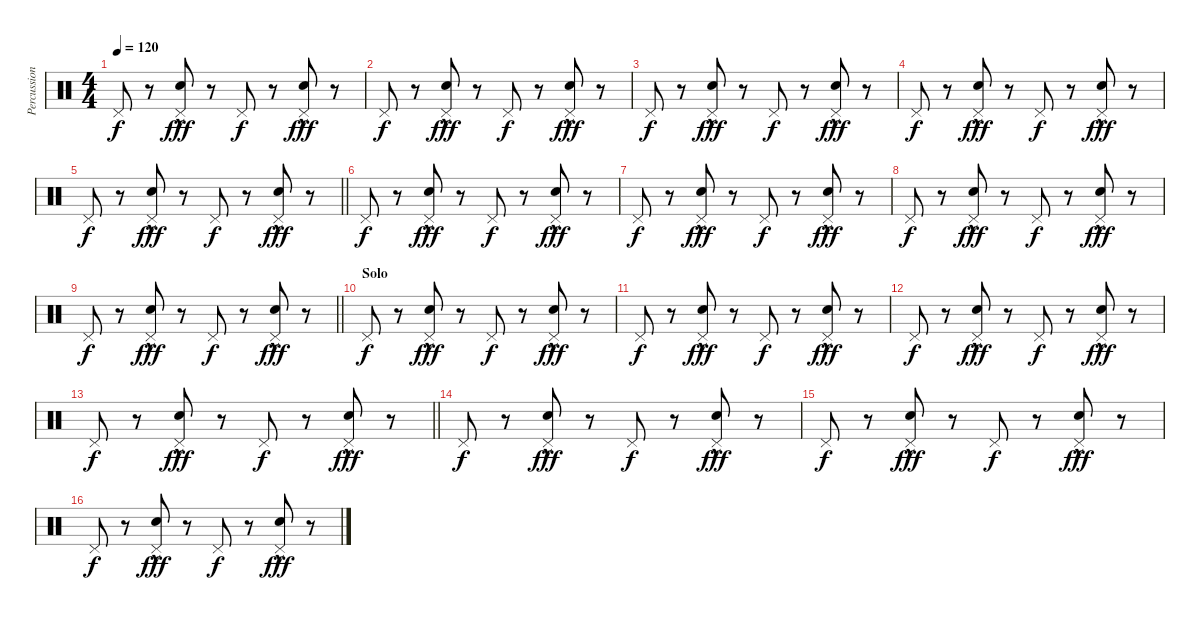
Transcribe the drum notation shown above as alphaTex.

\track ("Percussion" "Percussion") {instrument percussion}
\staff {score}
\articulation defaults
\ts (4 4)
\tempo 120
\clef neutral
\ks c "Pedal Hi-Hat (hit)".8{dy f}
r.8 ("Snare (hit) 2"{hac} "Pedal Hi-Hat (hit)").8{dy fff} r.8 "Pedal Hi-Hat (hit)".8{dy f} r.8 ("Snare (hit) 2"{hac} "Pedal Hi-Hat (hit)").8{dy fff} r.8 |
"Pedal Hi-Hat (hit)".8{dy f} r.8 ("Snare (hit) 2"{hac} "Pedal Hi-Hat (hit)").8{dy fff} r.8 "Pedal Hi-Hat (hit)".8{dy f} r.8 ("Snare (hit) 2"{hac} "Pedal Hi-Hat (hit)").8{dy fff} r.8 |
"Pedal Hi-Hat (hit)".8{dy f} r.8 ("Snare (hit) 2"{hac} "Pedal Hi-Hat (hit)").8{dy fff} r.8 "Pedal Hi-Hat (hit)".8{dy f} r.8 ("Snare (hit) 2"{hac} "Pedal Hi-Hat (hit)").8{dy fff} r.8 |
"Pedal Hi-Hat (hit)".8{dy f} r.8 ("Snare (hit) 2"{hac} "Pedal Hi-Hat (hit)").8{dy fff} r.8 "Pedal Hi-Hat (hit)".8{dy f} r.8 ("Snare (hit) 2"{hac} "Pedal Hi-Hat (hit)").8{dy fff} r.8 |
\barLineRight lightlight "Pedal Hi-Hat (hit)".8{dy f}
r.8 ("Snare (hit) 2"{hac} "Pedal Hi-Hat (hit)").8{dy fff} r.8 "Pedal Hi-Hat (hit)".8{dy f} r.8 ("Snare (hit) 2"{hac} "Pedal Hi-Hat (hit)").8{dy fff} r.8 |
"Pedal Hi-Hat (hit)".8{dy f} r.8 ("Snare (hit) 2"{hac} "Pedal Hi-Hat (hit)").8{dy fff} r.8 "Pedal Hi-Hat (hit)".8{dy f} r.8 ("Snare (hit) 2"{hac} "Pedal Hi-Hat (hit)").8{dy fff} r.8 |
"Pedal Hi-Hat (hit)".8{dy f} r.8 ("Snare (hit) 2"{hac} "Pedal Hi-Hat (hit)").8{dy fff} r.8 "Pedal Hi-Hat (hit)".8{dy f} r.8 ("Snare (hit) 2"{hac} "Pedal Hi-Hat (hit)").8{dy fff} r.8 |
"Pedal Hi-Hat (hit)".8{dy f} r.8 ("Snare (hit) 2"{hac} "Pedal Hi-Hat (hit)").8{dy fff} r.8 "Pedal Hi-Hat (hit)".8{dy f} r.8 ("Snare (hit) 2"{hac} "Pedal Hi-Hat (hit)").8{dy fff} r.8 |
\barLineRight lightlight "Pedal Hi-Hat (hit)".8{dy f}
r.8 ("Snare (hit) 2"{hac} "Pedal Hi-Hat (hit)").8{dy fff} r.8 "Pedal Hi-Hat (hit)".8{dy f} r.8 ("Snare (hit) 2"{hac} "Pedal Hi-Hat (hit)").8{dy fff} r.8 |
\section ("" "Solo")
"Pedal Hi-Hat (hit)".8{dy f} r.8 ("Snare (hit) 2"{hac} "Pedal Hi-Hat (hit)").8{dy fff} r.8 "Pedal Hi-Hat (hit)".8{dy f} r.8 ("Snare (hit) 2"{hac} "Pedal Hi-Hat (hit)").8{dy fff} r.8 |
"Pedal Hi-Hat (hit)".8{dy f} r.8 ("Snare (hit) 2"{hac} "Pedal Hi-Hat (hit)").8{dy fff} r.8 "Pedal Hi-Hat (hit)".8{dy f} r.8 ("Snare (hit) 2"{hac} "Pedal Hi-Hat (hit)").8{dy fff} r.8 |
"Pedal Hi-Hat (hit)".8{dy f} r.8 ("Snare (hit) 2"{hac} "Pedal Hi-Hat (hit)").8{dy fff} r.8 "Pedal Hi-Hat (hit)".8{dy f} r.8 ("Snare (hit) 2"{hac} "Pedal Hi-Hat (hit)").8{dy fff} r.8 |
\barLineRight lightlight "Pedal Hi-Hat (hit)".8{dy f}
r.8 ("Snare (hit) 2"{hac} "Pedal Hi-Hat (hit)").8{dy fff} r.8 "Pedal Hi-Hat (hit)".8{dy f} r.8 ("Snare (hit) 2"{hac} "Pedal Hi-Hat (hit)").8{dy fff} r.8 |
"Pedal Hi-Hat (hit)".8{dy f} r.8 ("Snare (hit) 2"{hac} "Pedal Hi-Hat (hit)").8{dy fff} r.8 "Pedal Hi-Hat (hit)".8{dy f} r.8 ("Snare (hit) 2"{hac} "Pedal Hi-Hat (hit)").8{dy fff} r.8 |
"Pedal Hi-Hat (hit)".8{dy f} r.8 ("Snare (hit) 2"{hac} "Pedal Hi-Hat (hit)").8{dy fff} r.8 "Pedal Hi-Hat (hit)".8{dy f} r.8 ("Snare (hit) 2"{hac} "Pedal Hi-Hat (hit)").8{dy fff} r.8 |
"Pedal Hi-Hat (hit)".8{dy f} r.8 ("Snare (hit) 2"{hac} "Pedal Hi-Hat (hit)").8{dy fff} r.8 "Pedal Hi-Hat (hit)".8{dy f} r.8 ("Snare (hit) 2"{hac} "Pedal Hi-Hat (hit)").8{dy fff} r.8
